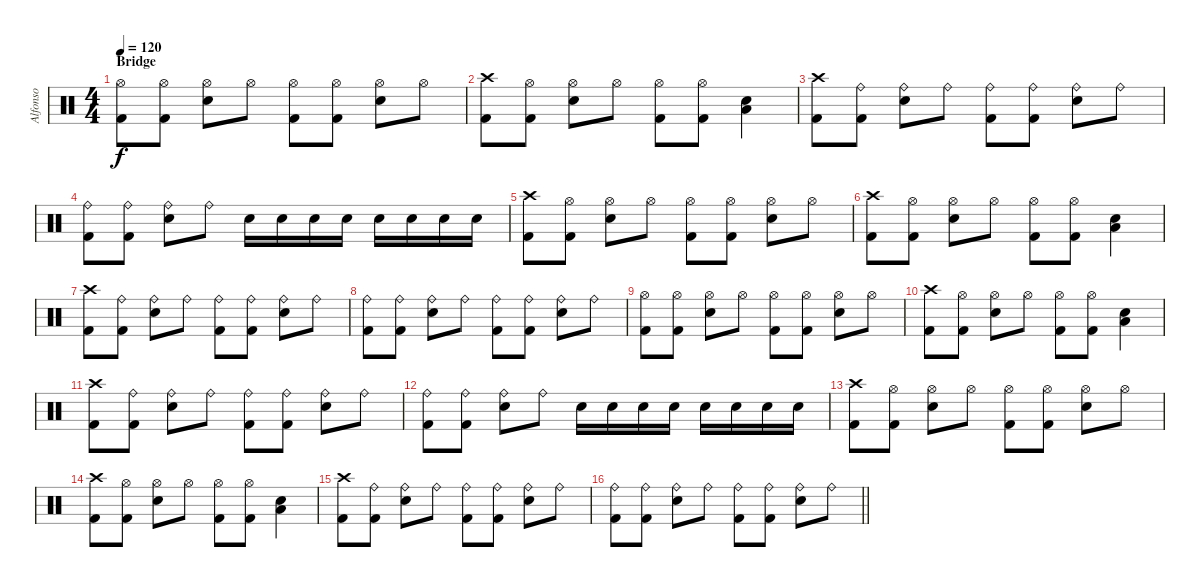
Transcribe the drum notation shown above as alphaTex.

\track ("Alfonso" "Alfonso") {instrument percussion}
\staff {score}
\articulation defaults
\ts (4 4)
\section ("" "Bridge")
\tempo 120
\clef neutral
\ks c
("Hi-Hat (open)" "Kick (hit) 2").8{dy f} ("Hi-Hat (open)" "Kick (hit) 2").8 ("Hi-Hat (open)" "Electric Snare (hit)").8 "Hi-Hat (open)".8 ("Hi-Hat (open)" "Kick (hit) 2").8 ("Hi-Hat (open)" "Kick (hit) 2").8 ("Hi-Hat (open)" "Electric Snare (hit)").8 "Hi-Hat (open)".8 |
("Crash high (hit)" "Kick (hit) 2").8 ("Hi-Hat (open)" "Kick (hit) 2").8 ("Hi-Hat (open)" "Electric Snare (hit)").8 "Hi-Hat (open)".8 ("Hi-Hat (open)" "Kick (hit) 2").8 ("Hi-Hat (open)" "Kick (hit) 2").8 ("Low Floor Tom (hit)" "Electric Snare (hit)").4 |
("Crash high (hit)" "Kick (hit) 2").8 ("Ride (bell)" "Kick (hit) 2").8 ("Ride (bell)" "Electric Snare (hit)").8 "Ride (bell)".8 ("Ride (bell)" "Kick (hit) 2").8 ("Ride (bell)" "Kick (hit) 2").8 ("Ride (bell)" "Electric Snare (hit)").8 "Ride (bell)".8 |
("Ride (bell)" "Kick (hit) 2").8 ("Ride (bell)" "Kick (hit) 2").8 ("Ride (bell)" "Electric Snare (hit)").8 "Ride (bell)".8 "Electric Snare (hit)".16 "Electric Snare (hit)".16 "Electric Snare (hit)".16 "Electric Snare (hit)".16 "Electric Snare (hit)".16 "Electric Snare (hit)".16 "Electric Snare (hit)".16 "Electric Snare (hit)".16 |
("Crash high (hit)" "Kick (hit) 2").8 ("Hi-Hat (open)" "Kick (hit) 2").8 ("Hi-Hat (open)" "Electric Snare (hit)").8 "Hi-Hat (open)".8 ("Hi-Hat (open)" "Kick (hit) 2").8 ("Hi-Hat (open)" "Kick (hit) 2").8 ("Hi-Hat (open)" "Electric Snare (hit)").8 "Hi-Hat (open)".8 |
("Crash high (hit)" "Kick (hit) 2").8 ("Hi-Hat (open)" "Kick (hit) 2").8 ("Hi-Hat (open)" "Electric Snare (hit)").8 "Hi-Hat (open)".8 ("Hi-Hat (open)" "Kick (hit) 2").8 ("Hi-Hat (open)" "Kick (hit) 2").8 ("Low Floor Tom (hit)" "Electric Snare (hit)").4 |
("Crash high (hit)" "Kick (hit) 2").8 ("Ride (bell)" "Kick (hit) 2").8 ("Ride (bell)" "Electric Snare (hit)").8 "Ride (bell)".8 ("Ride (bell)" "Kick (hit) 2").8 ("Ride (bell)" "Kick (hit) 2").8 ("Ride (bell)" "Electric Snare (hit)").8 "Ride (bell)".8 |
("Ride (bell)" "Kick (hit) 2").8 ("Ride (bell)" "Kick (hit) 2").8 ("Ride (bell)" "Electric Snare (hit)").8 "Ride (bell)".8 ("Ride (bell)" "Kick (hit) 2").8 ("Ride (bell)" "Kick (hit) 2").8 ("Ride (bell)" "Electric Snare (hit)").8 "Ride (bell)".8 |
("Hi-Hat (open)" "Kick (hit) 2").8 ("Hi-Hat (open)" "Kick (hit) 2").8 ("Hi-Hat (open)" "Electric Snare (hit)").8 "Hi-Hat (open)".8 ("Hi-Hat (open)" "Kick (hit) 2").8 ("Hi-Hat (open)" "Kick (hit) 2").8 ("Hi-Hat (open)" "Electric Snare (hit)").8 "Hi-Hat (open)".8 |
("Crash high (hit)" "Kick (hit) 2").8 ("Hi-Hat (open)" "Kick (hit) 2").8 ("Hi-Hat (open)" "Electric Snare (hit)").8 "Hi-Hat (open)".8 ("Hi-Hat (open)" "Kick (hit) 2").8 ("Hi-Hat (open)" "Kick (hit) 2").8 ("Low Floor Tom (hit)" "Electric Snare (hit)").4 |
("Crash high (hit)" "Kick (hit) 2").8 ("Ride (bell)" "Kick (hit) 2").8 ("Ride (bell)" "Electric Snare (hit)").8 "Ride (bell)".8 ("Ride (bell)" "Kick (hit) 2").8 ("Ride (bell)" "Kick (hit) 2").8 ("Ride (bell)" "Electric Snare (hit)").8 "Ride (bell)".8 |
("Ride (bell)" "Kick (hit) 2").8 ("Ride (bell)" "Kick (hit) 2").8 ("Ride (bell)" "Electric Snare (hit)").8 "Ride (bell)".8 "Electric Snare (hit)".16 "Electric Snare (hit)".16 "Electric Snare (hit)".16 "Electric Snare (hit)".16 "Electric Snare (hit)".16 "Electric Snare (hit)".16 "Electric Snare (hit)".16 "Electric Snare (hit)".16 |
("Crash high (hit)" "Kick (hit) 2").8 ("Hi-Hat (open)" "Kick (hit) 2").8 ("Hi-Hat (open)" "Electric Snare (hit)").8 "Hi-Hat (open)".8 ("Hi-Hat (open)" "Kick (hit) 2").8 ("Hi-Hat (open)" "Kick (hit) 2").8 ("Hi-Hat (open)" "Electric Snare (hit)").8 "Hi-Hat (open)".8 |
("Crash high (hit)" "Kick (hit) 2").8 ("Hi-Hat (open)" "Kick (hit) 2").8 ("Hi-Hat (open)" "Electric Snare (hit)").8 "Hi-Hat (open)".8 ("Hi-Hat (open)" "Kick (hit) 2").8 ("Hi-Hat (open)" "Kick (hit) 2").8 ("Low Floor Tom (hit)" "Electric Snare (hit)").4 |
("Crash high (hit)" "Kick (hit) 2").8 ("Ride (bell)" "Kick (hit) 2").8 ("Ride (bell)" "Electric Snare (hit)").8 "Ride (bell)".8 ("Ride (bell)" "Kick (hit) 2").8 ("Ride (bell)" "Kick (hit) 2").8 ("Ride (bell)" "Electric Snare (hit)").8 "Ride (bell)".8 |
\barLineRight lightlight
("Ride (bell)" "Kick (hit) 2").8 ("Ride (bell)" "Kick (hit) 2").8 ("Ride (bell)" "Electric Snare (hit)").8 "Ride (bell)".8 ("Ride (bell)" "Kick (hit) 2").8 ("Ride (bell)" "Kick (hit) 2").8 ("Ride (bell)" "Electric Snare (hit)").8 "Ride (bell)".8
